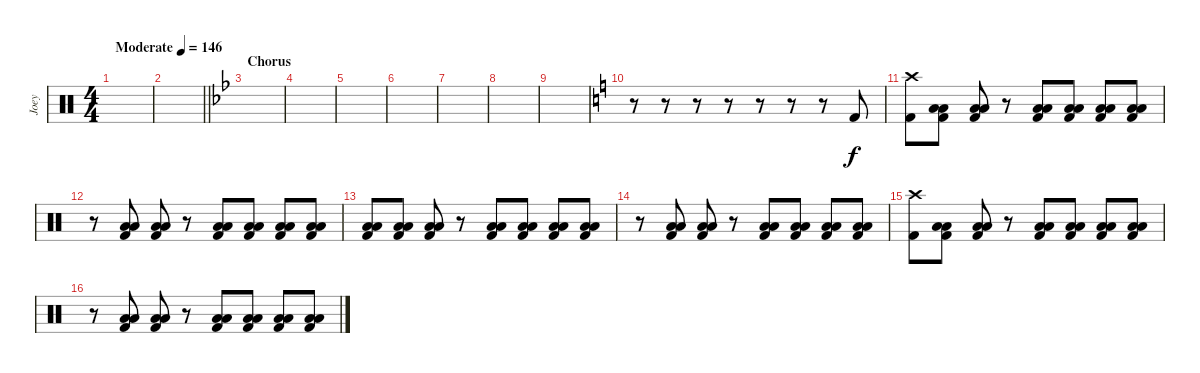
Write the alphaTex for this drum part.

\track ("Joey" "Joey") {instrument percussion}
\staff {score}
\articulation defaults
\ts (4 4)
\tempo (146 "Moderate")
\clef neutral
\ks c
|
\barLineRight lightlight
|
\section ("" "Chorus ")
\ks bb
|
|
|
|
|
|
|
\ks c
r.8 r.8 r.8 r.8 r.8 r.8 r.8 "Kick (hit) 2".8 |
("Crash high (hit)" "Kick (hit) 2").8 ("Low Tom (hit)" "Low Floor Tom (hit)" "Kick (hit) 2").8 ("Low Tom (hit)" "Low Floor Tom (hit)" "Kick (hit) 2").8 r.8 ("Low Tom (hit)" "Low Floor Tom (hit)" "Kick (hit) 2").8 ("Low Tom (hit)" "Low Floor Tom (hit)" "Kick (hit) 2").8 ("Low Tom (hit)" "Low Floor Tom (hit)" "Kick (hit) 2").8 ("Low Tom (hit)" "Low Floor Tom (hit)" "Kick (hit) 2").8 |
r.8 ("Low Tom (hit)" "Low Floor Tom (hit)" "Kick (hit) 2").8 ("Low Tom (hit)" "Low Floor Tom (hit)" "Kick (hit) 2").8 r.8 ("Low Tom (hit)" "Low Floor Tom (hit)" "Kick (hit) 2").8 ("Low Tom (hit)" "Low Floor Tom (hit)" "Kick (hit) 2").8 ("Low Tom (hit)" "Low Floor Tom (hit)" "Kick (hit) 2").8 ("Low Tom (hit)" "Low Floor Tom (hit)" "Kick (hit) 2").8 |
("Low Tom (hit)" "Low Floor Tom (hit)" "Kick (hit) 2").8 ("Low Tom (hit)" "Low Floor Tom (hit)" "Kick (hit) 2").8 ("Low Tom (hit)" "Low Floor Tom (hit)" "Kick (hit) 2").8 r.8 ("Low Tom (hit)" "Low Floor Tom (hit)" "Kick (hit) 2").8 ("Low Tom (hit)" "Low Floor Tom (hit)" "Kick (hit) 2").8 ("Low Tom (hit)" "Low Floor Tom (hit)" "Kick (hit) 2").8 ("Low Tom (hit)" "Low Floor Tom (hit)" "Kick (hit) 2").8 |
r.8 ("Low Tom (hit)" "Low Floor Tom (hit)" "Kick (hit) 2").8 ("Low Tom (hit)" "Low Floor Tom (hit)" "Kick (hit) 2").8 r.8 ("Low Tom (hit)" "Low Floor Tom (hit)" "Kick (hit) 2").8 ("Low Tom (hit)" "Low Floor Tom (hit)" "Kick (hit) 2").8 ("Low Tom (hit)" "Low Floor Tom (hit)" "Kick (hit) 2").8 ("Low Tom (hit)" "Low Floor Tom (hit)" "Kick (hit) 2").8 |
("Crash high (hit)" "Kick (hit) 2").8 ("Low Tom (hit)" "Low Floor Tom (hit)" "Kick (hit) 2").8 ("Low Tom (hit)" "Low Floor Tom (hit)" "Kick (hit) 2").8 r.8 ("Low Tom (hit)" "Low Floor Tom (hit)" "Kick (hit) 2").8 ("Low Tom (hit)" "Low Floor Tom (hit)" "Kick (hit) 2").8 ("Low Tom (hit)" "Low Floor Tom (hit)" "Kick (hit) 2").8 ("Low Tom (hit)" "Low Floor Tom (hit)" "Kick (hit) 2").8 |
r.8 ("Low Tom (hit)" "Low Floor Tom (hit)" "Kick (hit) 2").8 ("Low Tom (hit)" "Low Floor Tom (hit)" "Kick (hit) 2").8 r.8 ("Low Tom (hit)" "Low Floor Tom (hit)" "Kick (hit) 2").8 ("Low Tom (hit)" "Low Floor Tom (hit)" "Kick (hit) 2").8 ("Low Tom (hit)" "Low Floor Tom (hit)" "Kick (hit) 2").8 ("Low Tom (hit)" "Low Floor Tom (hit)" "Kick (hit) 2").8
